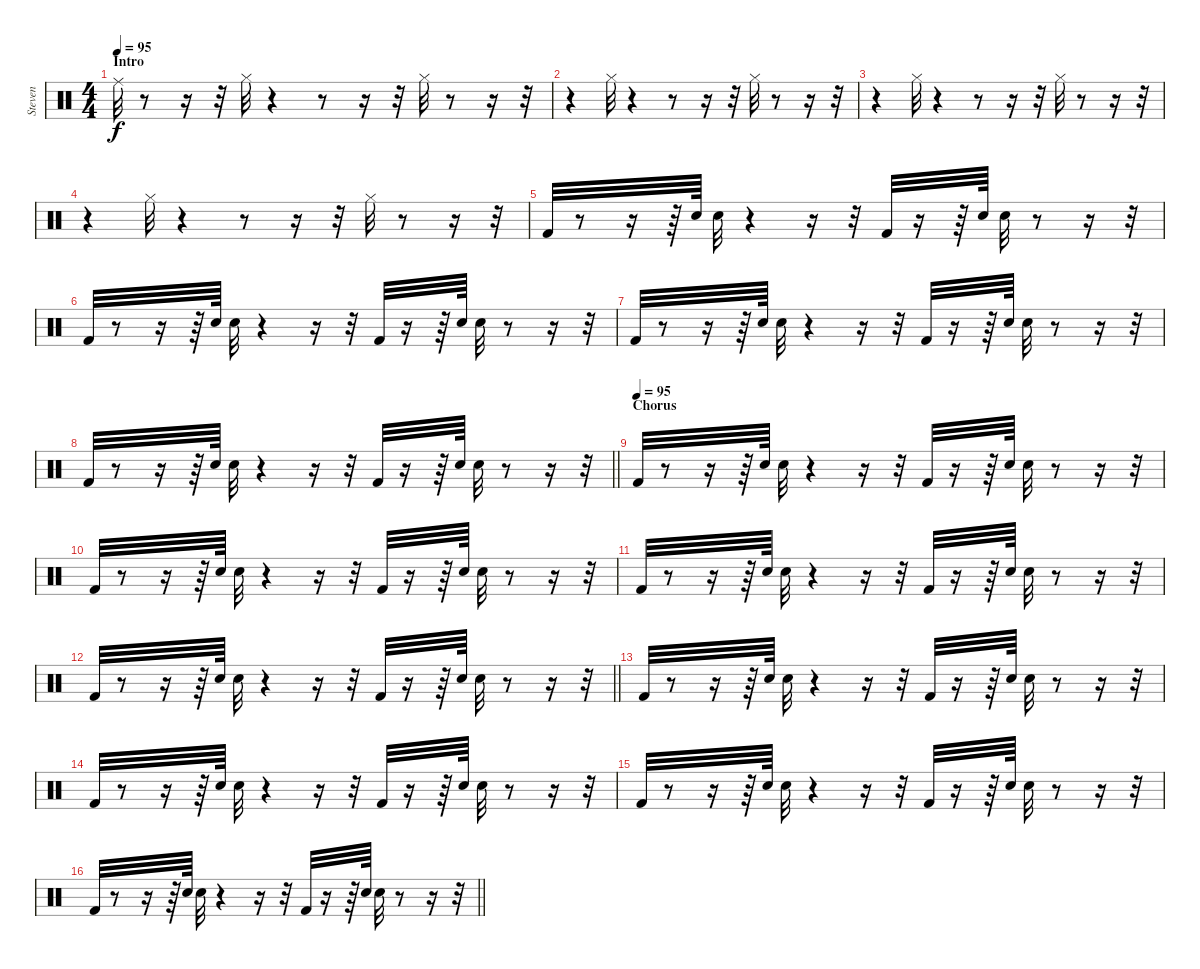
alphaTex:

\track ("Steven" "Steven") {instrument percussion}
\staff {score}
\articulation defaults
\ts (4 4)
\section ("" "Intro")
\tempo 95
\clef neutral
\ks c "Ride (middle)".32{dy f}
r.8 r.16 r.32 "Hi-Hat (closed)".32 r.4 r.8 r.16 r.32 "Hi-Hat (closed)".32 r.8 r.16 r.32 |
r.4 "Hi-Hat (closed)".32 r.4 r.8 r.16 r.32 "Hi-Hat (closed)".32 r.8 r.16 r.32 |
r.4 "Hi-Hat (closed)".32 r.4 r.8 r.16 r.32 "Hi-Hat (closed)".32 r.8 r.16 r.32 |
r.4 "Hi-Hat (closed)".32 r.4 r.8 r.16 r.32 "Hi-Hat (closed)".32 r.8 r.16 r.32 |
"Kick (hit) 2".32 r.8 r.16 r.64 "Snare (hit) 2".64 "Snare (hit) 2".32 r.4 r.16 r.32 "Kick (hit) 2".32 r.16 r.64 "Snare (hit) 2".64 "Snare (hit) 2".32 r.8 r.16 r.32 |
"Kick (hit) 2".32 r.8 r.16 r.64 "Snare (hit) 2".64 "Snare (hit) 2".32 r.4 r.16 r.32 "Kick (hit) 2".32 r.16 r.64 "Snare (hit) 2".64 "Snare (hit) 2".32 r.8 r.16 r.32 |
"Kick (hit) 2".32 r.8 r.16 r.64 "Snare (hit) 2".64 "Snare (hit) 2".32 r.4 r.16 r.32 "Kick (hit) 2".32 r.16 r.64 "Snare (hit) 2".64 "Snare (hit) 2".32 r.8 r.16 r.32 |
\barLineRight lightlight "Kick (hit) 2".32
r.8 r.16 r.64 "Snare (hit) 2".64 "Snare (hit) 2".32 r.4 r.16 r.32 "Kick (hit) 2".32 r.16 r.64 "Snare (hit) 2".64 "Snare (hit) 2".32 r.8 r.16 r.32 |
\section ("" "Chorus")
\tempo (95)
"Kick (hit) 2".32 r.8 r.16 r.64 "Snare (hit) 2".64 "Snare (hit) 2".32 r.4 r.16 r.32 "Kick (hit) 2".32 r.16 r.64 "Snare (hit) 2".64 "Snare (hit) 2".32 r.8 r.16 r.32 |
"Kick (hit) 2".32 r.8 r.16 r.64 "Snare (hit) 2".64 "Snare (hit) 2".32 r.4 r.16 r.32 "Kick (hit) 2".32 r.16 r.64 "Snare (hit) 2".64 "Snare (hit) 2".32 r.8 r.16 r.32 |
"Kick (hit) 2".32 r.8 r.16 r.64 "Snare (hit) 2".64 "Snare (hit) 2".32 r.4 r.16 r.32 "Kick (hit) 2".32 r.16 r.64 "Snare (hit) 2".64 "Snare (hit) 2".32 r.8 r.16 r.32 |
\barLineRight lightlight "Kick (hit) 2".32
r.8 r.16 r.64 "Snare (hit) 2".64 "Snare (hit) 2".32 r.4 r.16 r.32 "Kick (hit) 2".32 r.16 r.64 "Snare (hit) 2".64 "Snare (hit) 2".32 r.8 r.16 r.32 |
"Kick (hit) 2".32 r.8 r.16 r.64 "Snare (hit) 2".64 "Snare (hit) 2".32 r.4 r.16 r.32 "Kick (hit) 2".32 r.16 r.64 "Snare (hit) 2".64 "Snare (hit) 2".32 r.8 r.16 r.32 |
"Kick (hit) 2".32 r.8 r.16 r.64 "Snare (hit) 2".64 "Snare (hit) 2".32 r.4 r.16 r.32 "Kick (hit) 2".32 r.16 r.64 "Snare (hit) 2".64 "Snare (hit) 2".32 r.8 r.16 r.32 |
"Kick (hit) 2".32 r.8 r.16 r.64 "Snare (hit) 2".64 "Snare (hit) 2".32 r.4 r.16 r.32 "Kick (hit) 2".32 r.16 r.64 "Snare (hit) 2".64 "Snare (hit) 2".32 r.8 r.16 r.32 |
\barLineRight lightlight "Kick (hit) 2".32
r.8 r.16 r.64 "Snare (hit) 2".64 "Snare (hit) 2".32 r.4 r.16 r.32 "Kick (hit) 2".32 r.16 r.64 "Snare (hit) 2".64 "Snare (hit) 2".32 r.8 r.16 r.32
